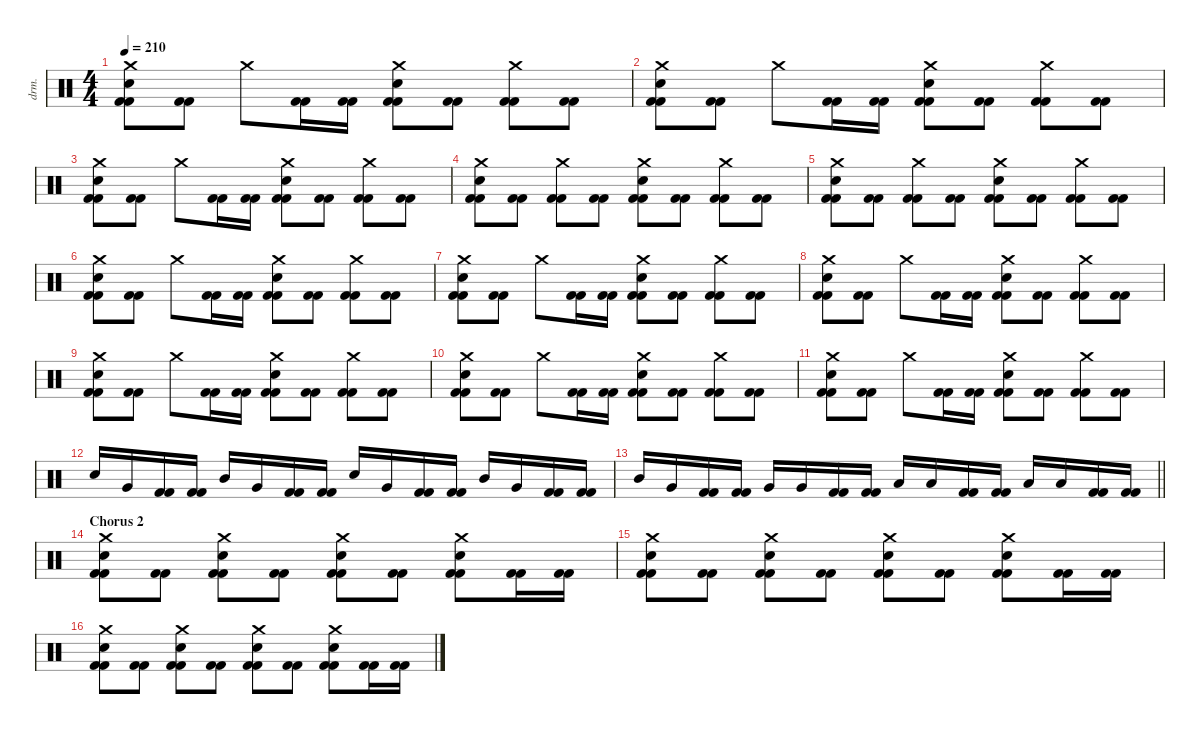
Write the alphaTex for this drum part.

\defaultSystemsLayout 4
\hideDynamics
\bracketExtendMode nobrackets
\otherSystemsTrackNameOrientation horizontal
\track ("Chris Adler" "drm.") {instrument percussion}
\staff {score}
\articulation defaults
\ts (4 4)
\tempo 210
\clef neutral
\ks c
("Crash medium (hit)" "Snare (hit) 2" "Kick (hit) 2" "Kick (hit) 2").8{dy f} ("Kick (hit) 2" "Kick (hit) 2").8 "Crash medium (hit)".8 ("Kick (hit) 2" "Kick (hit) 2").16 ("Kick (hit) 2" "Kick (hit) 2").16 ("Crash medium (hit)" "Snare (hit) 2" "Kick (hit) 2" "Kick (hit) 2").8 ("Kick (hit) 2" "Kick (hit) 2").8 ("Crash medium (hit)" "Kick (hit) 2" "Kick (hit) 2").8 ("Kick (hit) 2" "Kick (hit) 2").8 |
("Crash medium (hit)" "Snare (hit) 2" "Kick (hit) 2" "Kick (hit) 2").8 ("Kick (hit) 2" "Kick (hit) 2").8 "Crash medium (hit)".8 ("Kick (hit) 2" "Kick (hit) 2").16 ("Kick (hit) 2" "Kick (hit) 2").16 ("Crash medium (hit)" "Snare (hit) 2" "Kick (hit) 2" "Kick (hit) 2").8 ("Kick (hit) 2" "Kick (hit) 2").8 ("Crash medium (hit)" "Kick (hit) 2" "Kick (hit) 2").8 ("Kick (hit) 2" "Kick (hit) 2").8 |
("Crash medium (hit)" "Snare (hit) 2" "Kick (hit) 2" "Kick (hit) 2").8 ("Kick (hit) 2" "Kick (hit) 2").8 "Crash medium (hit)".8 ("Kick (hit) 2" "Kick (hit) 2").16 ("Kick (hit) 2" "Kick (hit) 2").16 ("Crash medium (hit)" "Snare (hit) 2" "Kick (hit) 2" "Kick (hit) 2").8 ("Kick (hit) 2" "Kick (hit) 2").8 ("Crash medium (hit)" "Kick (hit) 2" "Kick (hit) 2").8 ("Kick (hit) 2" "Kick (hit) 2").8 |
("Crash medium (hit)" "Snare (hit) 2" "Kick (hit) 2" "Kick (hit) 2").8 ("Kick (hit) 2" "Kick (hit) 2").8 ("Crash medium (hit)" "Kick (hit) 2" "Kick (hit) 2").8 ("Kick (hit) 2" "Kick (hit) 2").8 ("Crash medium (hit)" "Snare (hit) 2" "Kick (hit) 2" "Kick (hit) 2").8 ("Kick (hit) 2" "Kick (hit) 2").8 ("Crash medium (hit)" "Kick (hit) 2" "Kick (hit) 2").8 ("Kick (hit) 2" "Kick (hit) 2").8 |
("Crash medium (hit)" "Snare (hit) 2" "Kick (hit) 2" "Kick (hit) 2").8 ("Kick (hit) 2" "Kick (hit) 2").8 ("Crash medium (hit)" "Kick (hit) 2" "Kick (hit) 2").8 ("Kick (hit) 2" "Kick (hit) 2").8 ("Crash medium (hit)" "Snare (hit) 2" "Kick (hit) 2" "Kick (hit) 2").8 ("Kick (hit) 2" "Kick (hit) 2").8 ("Crash medium (hit)" "Kick (hit) 2" "Kick (hit) 2").8 ("Kick (hit) 2" "Kick (hit) 2").8 |
("Crash medium (hit)" "Snare (hit) 2" "Kick (hit) 2" "Kick (hit) 2").8 ("Kick (hit) 2" "Kick (hit) 2").8 "Crash medium (hit)".8 ("Kick (hit) 2" "Kick (hit) 2").16 ("Kick (hit) 2" "Kick (hit) 2").16 ("Crash medium (hit)" "Snare (hit) 2" "Kick (hit) 2" "Kick (hit) 2").8 ("Kick (hit) 2" "Kick (hit) 2").8 ("Crash medium (hit)" "Kick (hit) 2" "Kick (hit) 2").8 ("Kick (hit) 2" "Kick (hit) 2").8 |
("Crash medium (hit)" "Snare (hit) 2" "Kick (hit) 2" "Kick (hit) 2").8 ("Kick (hit) 2" "Kick (hit) 2").8 "Crash medium (hit)".8 ("Kick (hit) 2" "Kick (hit) 2").16 ("Kick (hit) 2" "Kick (hit) 2").16 ("Crash medium (hit)" "Snare (hit) 2" "Kick (hit) 2" "Kick (hit) 2").8 ("Kick (hit) 2" "Kick (hit) 2").8 ("Crash medium (hit)" "Kick (hit) 2" "Kick (hit) 2").8 ("Kick (hit) 2" "Kick (hit) 2").8 |
("Crash medium (hit)" "Snare (hit) 2" "Kick (hit) 2" "Kick (hit) 2").8 ("Kick (hit) 2" "Kick (hit) 2").8 "Crash medium (hit)".8 ("Kick (hit) 2" "Kick (hit) 2").16 ("Kick (hit) 2" "Kick (hit) 2").16 ("Crash medium (hit)" "Snare (hit) 2" "Kick (hit) 2" "Kick (hit) 2").8 ("Kick (hit) 2" "Kick (hit) 2").8 ("Crash medium (hit)" "Kick (hit) 2" "Kick (hit) 2").8 ("Kick (hit) 2" "Kick (hit) 2").8 |
("Crash medium (hit)" "Snare (hit) 2" "Kick (hit) 2" "Kick (hit) 2").8 ("Kick (hit) 2" "Kick (hit) 2").8 "Crash medium (hit)".8 ("Kick (hit) 2" "Kick (hit) 2").16 ("Kick (hit) 2" "Kick (hit) 2").16 ("Crash medium (hit)" "Snare (hit) 2" "Kick (hit) 2" "Kick (hit) 2").8 ("Kick (hit) 2" "Kick (hit) 2").8 ("Crash medium (hit)" "Kick (hit) 2" "Kick (hit) 2").8 ("Kick (hit) 2" "Kick (hit) 2").8 |
("Crash medium (hit)" "Snare (hit) 2" "Kick (hit) 2" "Kick (hit) 2").8 ("Kick (hit) 2" "Kick (hit) 2").8 "Crash medium (hit)".8 ("Kick (hit) 2" "Kick (hit) 2").16 ("Kick (hit) 2" "Kick (hit) 2").16 ("Crash medium (hit)" "Snare (hit) 2" "Kick (hit) 2" "Kick (hit) 2").8 ("Kick (hit) 2" "Kick (hit) 2").8 ("Crash medium (hit)" "Kick (hit) 2" "Kick (hit) 2").8 ("Kick (hit) 2" "Kick (hit) 2").8 |
("Crash medium (hit)" "Snare (hit) 2" "Kick (hit) 2" "Kick (hit) 2").8 ("Kick (hit) 2" "Kick (hit) 2").8 "Crash medium (hit)".8 ("Kick (hit) 2" "Kick (hit) 2").16 ("Kick (hit) 2" "Kick (hit) 2").16 ("Crash medium (hit)" "Snare (hit) 2" "Kick (hit) 2" "Kick (hit) 2").8 ("Kick (hit) 2" "Kick (hit) 2").8 ("Crash medium (hit)" "Kick (hit) 2" "Kick (hit) 2").8 ("Kick (hit) 2" "Kick (hit) 2").8 |
"Snare (hit) 2".16 "Very Low Tom (hit)".16 ("Kick (hit) 2" "Kick (hit) 2").16 ("Kick (hit) 2" "Kick (hit) 2").16 "Mid Tom (hit)".16 "Very Low Tom (hit)".16 ("Kick (hit) 2" "Kick (hit) 2").16 ("Kick (hit) 2" "Kick (hit) 2").16 "Snare (hit) 2".16 "Very Low Tom (hit)".16 ("Kick (hit) 2" "Kick (hit) 2").16 ("Kick (hit) 2" "Kick (hit) 2").16 "Mid Tom (hit)".16 "Very Low Tom (hit)".16 ("Kick (hit) 2" "Kick (hit) 2").16 ("Kick (hit) 2" "Kick (hit) 2").16 |
\barLineRight lightlight "Mid Tom (hit)".16 "Very Low Tom (hit)".16
("Kick (hit) 2" "Kick (hit) 2").16 ("Kick (hit) 2" "Kick (hit) 2").16 "Very Low Tom (hit)".16 "Very Low Tom (hit)".16 ("Kick (hit) 2" "Kick (hit) 2").16 ("Kick (hit) 2" "Kick (hit) 2").16 "Low Floor Tom (hit)".16 "Low Floor Tom (hit)".16 ("Kick (hit) 2" "Kick (hit) 2").16 ("Kick (hit) 2" "Kick (hit) 2").16 "Low Floor Tom (hit)".16 "Low Floor Tom (hit)".16 ("Kick (hit) 2" "Kick (hit) 2").16 ("Kick (hit) 2" "Kick (hit) 2").16 |
\section ("" "Chorus 2")
("Crash medium (hit)" "Snare (hit) 2" "Kick (hit) 2" "Kick (hit) 2").8 ("Kick (hit) 2" "Kick (hit) 2").8 ("Crash medium (hit)" "Snare (hit) 2" "Kick (hit) 2" "Kick (hit) 2").8 ("Kick (hit) 2" "Kick (hit) 2").8 ("Crash medium (hit)" "Snare (hit) 2" "Kick (hit) 2" "Kick (hit) 2").8 ("Kick (hit) 2" "Kick (hit) 2").8 ("Crash medium (hit)" "Snare (hit) 2" "Kick (hit) 2" "Kick (hit) 2").8 ("Kick (hit) 2" "Kick (hit) 2").16 ("Kick (hit) 2" "Kick (hit) 2").16 |
("Crash medium (hit)" "Snare (hit) 2" "Kick (hit) 2" "Kick (hit) 2").8 ("Kick (hit) 2" "Kick (hit) 2").8 ("Crash medium (hit)" "Snare (hit) 2" "Kick (hit) 2" "Kick (hit) 2").8 ("Kick (hit) 2" "Kick (hit) 2").8 ("Crash medium (hit)" "Snare (hit) 2" "Kick (hit) 2" "Kick (hit) 2").8 ("Kick (hit) 2" "Kick (hit) 2").8 ("Crash medium (hit)" "Snare (hit) 2" "Kick (hit) 2" "Kick (hit) 2").8 ("Kick (hit) 2" "Kick (hit) 2").16 ("Kick (hit) 2" "Kick (hit) 2").16 |
("Crash medium (hit)" "Snare (hit) 2" "Kick (hit) 2" "Kick (hit) 2").8 ("Kick (hit) 2" "Kick (hit) 2").8 ("Crash medium (hit)" "Snare (hit) 2" "Kick (hit) 2" "Kick (hit) 2").8 ("Kick (hit) 2" "Kick (hit) 2").8 ("Crash medium (hit)" "Snare (hit) 2" "Kick (hit) 2" "Kick (hit) 2").8 ("Kick (hit) 2" "Kick (hit) 2").8 ("Crash medium (hit)" "Snare (hit) 2" "Kick (hit) 2" "Kick (hit) 2").8 ("Kick (hit) 2" "Kick (hit) 2").16 ("Kick (hit) 2" "Kick (hit) 2").16
